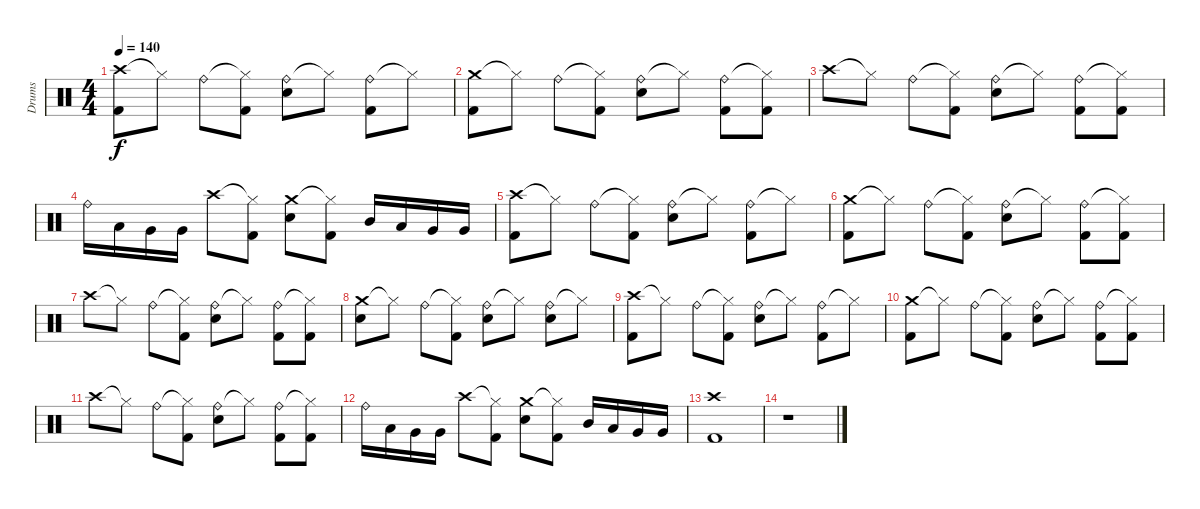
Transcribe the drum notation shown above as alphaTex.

\track ("Drums" "Drums") {instrument percussion}
\staff {score}
\articulation defaults
\ts (4 4)
\tempo 140
\clef neutral
\ks c
("Crash high (hit)" "Kick (hit) 2").8{dy f} "Hi-Hat (closed)"{t}.8 "Ride (bell)".8 ("Hi-Hat (closed)"{t} "Kick (hit) 2").8 ("Ride (bell)" "Snare (hit) 2").8 "Hi-Hat (closed)"{t}.8 ("Ride (bell)" "Kick (hit) 2").8 "Hi-Hat (closed)"{t}.8 |
("Crash medium (hit)" "Kick (hit) 2").8 "Hi-Hat (closed)"{t}.8 "Ride (bell)".8 ("Hi-Hat (closed)"{t} "Kick (hit) 2").8 ("Ride (bell)" "Snare (hit) 2").8 "Hi-Hat (closed)"{t}.8 ("Ride (bell)" "Kick (hit) 2").8 ("Hi-Hat (closed)"{t} "Kick (hit) 2").8 |
"Crash high (hit)".8 "Hi-Hat (closed)"{t}.8 "Ride (bell)".8 ("Hi-Hat (closed)"{t} "Kick (hit) 2").8 ("Ride (bell)" "Snare (hit) 2").8 "Hi-Hat (closed)"{t}.8 ("Ride (bell)" "Kick (hit) 2").8 ("Hi-Hat (closed)"{t} "Kick (hit) 2").8 |
"Ride (bell)".16 "Low Tom (hit)".16 "Very Low Tom (hit)".16 "Very Low Tom (hit)".16 "Crash high (hit)".8 ("Hi-Hat (closed)"{t} "Kick (hit) 2").8 ("Crash medium (hit)" "Snare (hit) 2").8 ("Hi-Hat (closed)"{t} "Kick (hit) 2").8 "Mid Tom (hit)".16 "Low Tom (hit)".16 "Very Low Tom (hit)".16 "Very Low Tom (hit)".16 |
("Crash high (hit)" "Kick (hit) 2").8 "Hi-Hat (closed)"{t}.8 "Ride (bell)".8 ("Hi-Hat (closed)"{t} "Kick (hit) 2").8 ("Ride (bell)" "Snare (hit) 2").8 "Hi-Hat (closed)"{t}.8 ("Ride (bell)" "Kick (hit) 2").8 "Hi-Hat (closed)"{t}.8 |
("Crash medium (hit)" "Kick (hit) 2").8 "Hi-Hat (closed)"{t}.8 "Ride (bell)".8 ("Hi-Hat (closed)"{t} "Kick (hit) 2").8 ("Ride (bell)" "Snare (hit) 2").8 "Hi-Hat (closed)"{t}.8 ("Ride (bell)" "Kick (hit) 2").8 ("Hi-Hat (closed)"{t} "Kick (hit) 2").8 |
"Crash high (hit)".8 "Hi-Hat (closed)"{t}.8 "Ride (bell)".8 ("Hi-Hat (closed)"{t} "Kick (hit) 2").8 ("Ride (bell)" "Snare (hit) 2").8 "Hi-Hat (closed)"{t}.8 ("Ride (bell)" "Kick (hit) 2").8 ("Hi-Hat (closed)"{t} "Kick (hit) 2").8 |
("Crash medium (hit)" "Snare (hit) 2").8 "Hi-Hat (closed)"{t}.8 "Ride (bell)".8 ("Hi-Hat (closed)"{t} "Kick (hit) 2").8 ("Ride (bell)" "Snare (hit) 2").8 "Hi-Hat (closed)"{t}.8 ("Ride (bell)" "Snare (hit) 2").8 "Hi-Hat (closed)"{t}.8 |
("Crash high (hit)" "Kick (hit) 2").8 "Hi-Hat (closed)"{t}.8 "Ride (bell)".8 ("Hi-Hat (closed)"{t} "Kick (hit) 2").8 ("Ride (bell)" "Snare (hit) 2").8 "Hi-Hat (closed)"{t}.8 ("Ride (bell)" "Kick (hit) 2").8 "Hi-Hat (closed)"{t}.8 |
("Crash medium (hit)" "Kick (hit) 2").8 "Hi-Hat (closed)"{t}.8 "Ride (bell)".8 ("Hi-Hat (closed)"{t} "Kick (hit) 2").8 ("Ride (bell)" "Snare (hit) 2").8 "Hi-Hat (closed)"{t}.8 ("Ride (bell)" "Kick (hit) 2").8 ("Hi-Hat (closed)"{t} "Kick (hit) 2").8 |
"Crash high (hit)".8 "Hi-Hat (closed)"{t}.8 "Ride (bell)".8 ("Hi-Hat (closed)"{t} "Kick (hit) 2").8 ("Ride (bell)" "Snare (hit) 2").8 "Hi-Hat (closed)"{t}.8 ("Ride (bell)" "Kick (hit) 2").8 ("Hi-Hat (closed)"{t} "Kick (hit) 2").8 |
"Ride (bell)".16 "Low Tom (hit)".16 "Very Low Tom (hit)".16 "Very Low Tom (hit)".16 "Crash high (hit)".8 ("Hi-Hat (closed)"{t} "Kick (hit) 2").8 ("Crash medium (hit)" "Snare (hit) 2").8 ("Hi-Hat (closed)"{t} "Kick (hit) 2").8 "Mid Tom (hit)".16 "Low Tom (hit)".16 "Very Low Tom (hit)".16 "Very Low Tom (hit)".16 |
("Crash high (hit)" "Kick (hit) 2").1 |
r.1
